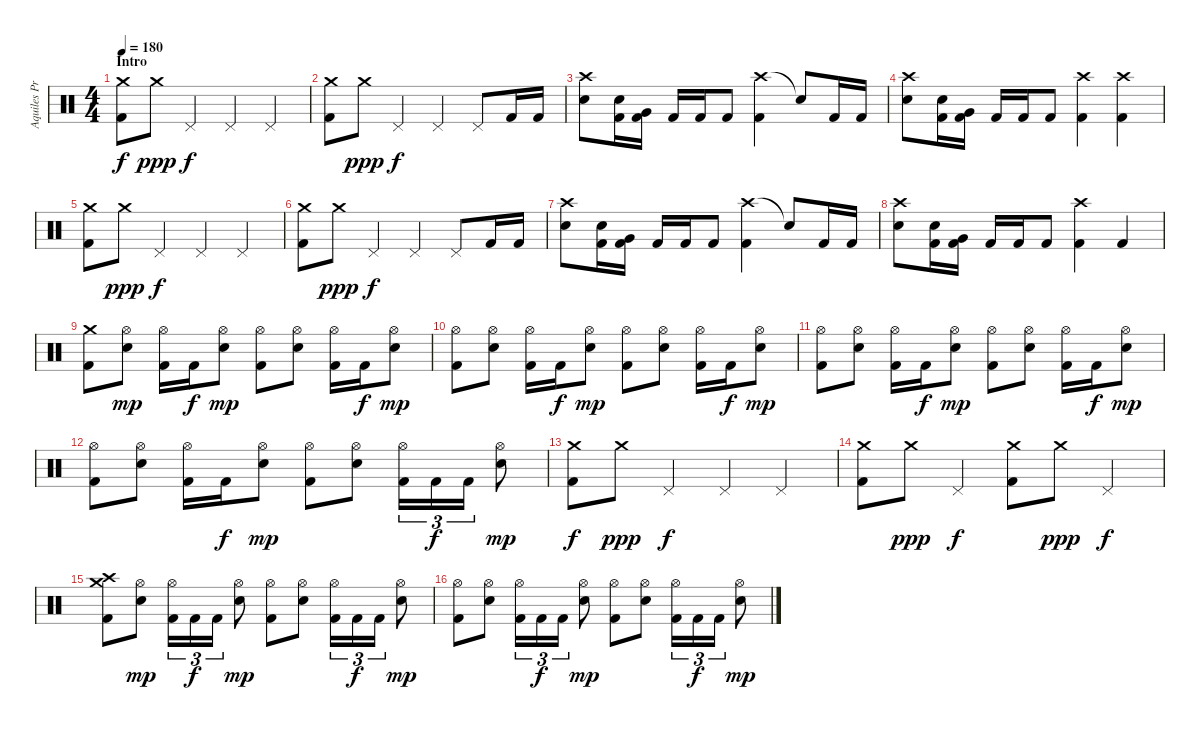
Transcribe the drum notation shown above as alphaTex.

\track ("Aquiles Priester" "Aquiles Pr") {instrument percussion}
\staff {score}
\articulation defaults
\ts (4 4)
\section ("" "Intro")
\tempo 180
\clef neutral
\ks c
("Crash medium (hit)" "Kick (hit) 2").8{dy f} "Crash medium (hit)".8{dy ppp} "Pedal Hi-Hat (hit)".4{dy f} "Pedal Hi-Hat (hit)".4 "Pedal Hi-Hat (hit)".4 |
("Crash medium (hit)" "Kick (hit) 2").8 "Crash medium (hit)".8{dy ppp} "Pedal Hi-Hat (hit)".4{dy f} "Pedal Hi-Hat (hit)".4 "Pedal Hi-Hat (hit)".8 "Kick (hit) 2".16 "Kick (hit) 2".16 |
("Crash high (hit)" "Snare (hit) 2").8 ("Snare (hit) 2" "Kick (hit) 2").16 ("Very Low Tom (hit)" "Kick (hit) 2").16 "Kick (hit) 2".16 "Kick (hit) 2".16 "Kick (hit) 2".8 ("Crash high (hit)" "Kick (hit) 2").4 "Snare (hit)"{t}.8 "Kick (hit) 2".16 "Kick (hit) 2".16 |
("Crash high (hit)" "Snare (hit) 2").8 ("Snare (hit) 2" "Kick (hit) 2").16 ("Very Low Tom (hit)" "Kick (hit) 2").16 "Kick (hit) 2".16 "Kick (hit) 2".16 "Kick (hit) 2".8 ("Crash high (hit)" "Kick (hit) 2").4 ("Crash high (hit)" "Kick (hit) 2").4 |
("Crash medium (hit)" "Kick (hit) 2").8 "Crash medium (hit)".8{dy ppp} "Pedal Hi-Hat (hit)".4{dy f} "Pedal Hi-Hat (hit)".4 "Pedal Hi-Hat (hit)".4 |
("Crash medium (hit)" "Kick (hit) 2").8 "Crash medium (hit)".8{dy ppp} "Pedal Hi-Hat (hit)".4{dy f} "Pedal Hi-Hat (hit)".4 "Pedal Hi-Hat (hit)".8 "Kick (hit) 2".16 "Kick (hit) 2".16 |
("Crash high (hit)" "Snare (hit) 2").8 ("Snare (hit) 2" "Kick (hit) 2").16 ("Very Low Tom (hit)" "Kick (hit) 2").16 "Kick (hit) 2".16 "Kick (hit) 2".16 "Kick (hit) 2".8 ("Crash high (hit)" "Kick (hit) 2").4 "Snare (hit)"{t}.8 "Kick (hit) 2".16 "Kick (hit) 2".16 |
("Crash high (hit)" "Snare (hit) 2").8 ("Snare (hit) 2" "Kick (hit) 2").16 ("Very Low Tom (hit)" "Kick (hit) 2").16 "Kick (hit) 2".16 "Kick (hit) 2".16 "Kick (hit) 2".8 ("Crash high (hit)" "Kick (hit) 2").4 "Kick (hit) 2".4 |
("Crash medium (hit)" "Kick (hit) 2").8 ("Hi-Hat (open)" "Snare (hit) 2").8{dy mp} ("Hi-Hat (open)" "Kick (hit) 2").16 "Kick (hit) 2".16{dy f} ("Hi-Hat (open)" "Snare (hit) 2").8{dy mp} ("Hi-Hat (open)" "Kick (hit) 2").8 ("Hi-Hat (open)" "Snare (hit) 2").8 ("Hi-Hat (open)" "Kick (hit) 2").16 "Kick (hit) 2".16{dy f} ("Hi-Hat (open)" "Snare (hit) 2").8{dy mp} |
("Hi-Hat (open)" "Kick (hit) 2").8 ("Hi-Hat (open)" "Snare (hit) 2").8 ("Hi-Hat (open)" "Kick (hit) 2").16 "Kick (hit) 2".16{dy f} ("Hi-Hat (open)" "Snare (hit) 2").8{dy mp} ("Hi-Hat (open)" "Kick (hit) 2").8 ("Hi-Hat (open)" "Snare (hit) 2").8 ("Hi-Hat (open)" "Kick (hit) 2").16 "Kick (hit) 2".16{dy f} ("Hi-Hat (open)" "Snare (hit) 2").8{dy mp} |
("Hi-Hat (open)" "Kick (hit) 2").8 ("Hi-Hat (open)" "Snare (hit) 2").8 ("Hi-Hat (open)" "Kick (hit) 2").16 "Kick (hit) 2".16{dy f} ("Hi-Hat (open)" "Snare (hit) 2").8{dy mp} ("Hi-Hat (open)" "Kick (hit) 2").8 ("Hi-Hat (open)" "Snare (hit) 2").8 ("Hi-Hat (open)" "Kick (hit) 2").16 "Kick (hit) 2".16{dy f} ("Hi-Hat (open)" "Snare (hit) 2").8{dy mp} |
("Hi-Hat (open)" "Kick (hit) 2").8 ("Hi-Hat (open)" "Snare (hit) 2").8 ("Hi-Hat (open)" "Kick (hit) 2").16 "Kick (hit) 2".16{dy f} ("Hi-Hat (open)" "Snare (hit) 2").8{dy mp} ("Hi-Hat (open)" "Kick (hit) 2").8 ("Hi-Hat (open)" "Snare (hit) 2").8 ("Hi-Hat (open)" "Kick (hit) 2").16{tu (3 2)} "Kick (hit) 2".16{tu (3 2) dy f} "Kick (hit) 2".16{tu (3 2)} ("Hi-Hat (open)" "Snare (hit) 2").8{dy mp} |
("Crash medium (hit)" "Kick (hit) 2").8{dy f} "Crash medium (hit)".8{dy ppp} "Pedal Hi-Hat (hit)".4{dy f} "Pedal Hi-Hat (hit)".4 "Pedal Hi-Hat (hit)".4 |
("Crash medium (hit)" "Kick (hit) 2").8 "Crash medium (hit)".8{dy ppp} "Pedal Hi-Hat (hit)".4{dy f} ("Crash medium (hit)" "Kick (hit) 2").8 "Crash medium (hit)".8{dy ppp} "Pedal Hi-Hat (hit)".4{dy f} |
("Crash medium (hit)" "Crash high (hit)" "Kick (hit) 2").8 ("Hi-Hat (open)" "Snare (hit) 2").8{dy mp} ("Hi-Hat (open)" "Kick (hit) 2").16{tu (3 2)} "Kick (hit) 2".16{tu (3 2) dy f} "Kick (hit) 2".16{tu (3 2)} ("Hi-Hat (open)" "Snare (hit) 2").8{dy mp} ("Hi-Hat (open)" "Kick (hit) 2").8 ("Hi-Hat (open)" "Snare (hit) 2").8 ("Hi-Hat (open)" "Kick (hit) 2").16{tu (3 2)} "Kick (hit) 2".16{tu (3 2) dy f} "Kick (hit) 2".16{tu (3 2)} ("Hi-Hat (open)" "Snare (hit) 2").8{dy mp} |
("Hi-Hat (open)" "Kick (hit) 2").8 ("Hi-Hat (open)" "Snare (hit) 2").8 ("Hi-Hat (open)" "Kick (hit) 2").16{tu (3 2)} "Kick (hit) 2".16{tu (3 2) dy f} "Kick (hit) 2".16{tu (3 2)} ("Hi-Hat (open)" "Snare (hit) 2").8{dy mp} ("Hi-Hat (open)" "Kick (hit) 2").8 ("Hi-Hat (open)" "Snare (hit) 2").8 ("Hi-Hat (open)" "Kick (hit) 2").16{tu (3 2)} "Kick (hit) 2".16{tu (3 2) dy f} "Kick (hit) 2".16{tu (3 2)} ("Hi-Hat (open)" "Snare (hit) 2").8{dy mp}
